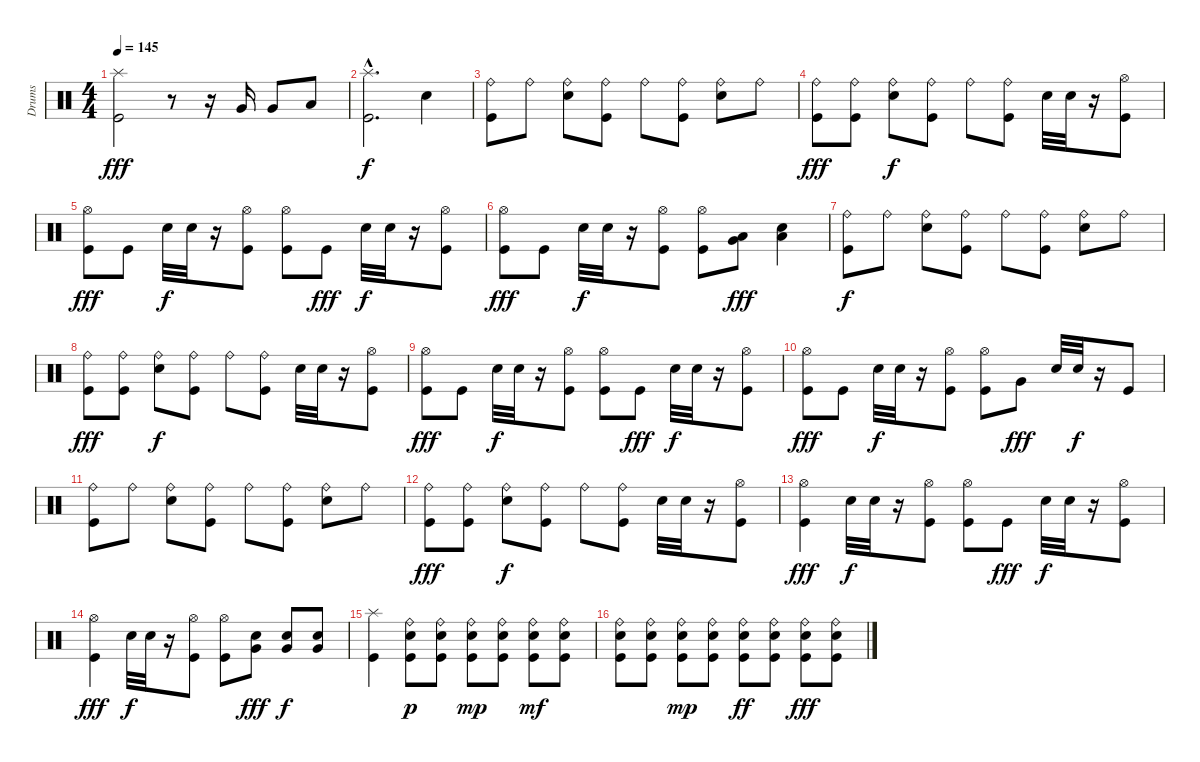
\track ("Drums" "Drums") {instrument percussion}
\staff {score}
\articulation defaults
\ts (4 4)
\tempo 145
\clef neutral
\ks c
("Splash (hit)" "Kick (hit)").2{dy fff} r.8 r.16 "Very Low Tom (hit)".16 "Very Low Tom (hit)".8 "Low Tom (hit)".8 |
("Splash (hit)"{hac} "Kick (hit)"{hac}).2{d dy f} "Snare (hit) 2".4 |
("Ride (bell)" "Kick (hit)").8 "Ride (bell)".8 ("Ride (bell)" "Snare (hit) 2").8 ("Ride (bell)" "Kick (hit)").8 "Ride (bell)".8 ("Ride (bell)" "Kick (hit)").8 ("Ride (bell)" "Snare (hit) 2").8 "Ride (bell)".8 |
("Ride (bell)" "Kick (hit)").8{dy fff} ("Ride (bell)" "Kick (hit)").8 ("Ride (bell)" "Snare (hit) 2").8{dy f} ("Ride (bell)" "Kick (hit)").8 "Ride (bell)".8 ("Ride (bell)" "Kick (hit)").8 "Snare (hit) 2".32 "Snare (hit) 2".32 r.16 ("Hi-Hat (open)" "Kick (hit)").8 |
("Hi-Hat (open)" "Kick (hit)").8{dy fff} "Kick (hit)".8 "Snare (hit) 2".32{dy f} "Snare (hit) 2".32 r.16 ("Hi-Hat (open)" "Kick (hit)").8 ("Hi-Hat (open)" "Kick (hit)").8 "Kick (hit)".8{dy fff} "Snare (hit) 2".32{dy f} "Snare (hit) 2".32 r.16 ("Hi-Hat (open)" "Kick (hit)").8 |
("Hi-Hat (open)" "Kick (hit)").8{dy fff} "Kick (hit)".8 "Snare (hit) 2".32{dy f} "Snare (hit) 2".32 r.16 ("Hi-Hat (open)" "Kick (hit)").8 ("Hi-Hat (open)" "Kick (hit)").8 ("Very Low Tom (hit)" "Low Tom (hit)").8{dy fff} ("Low Tom (hit)" "Snare (hit) 2").4 |
("Ride (bell)" "Kick (hit)").8{dy f} "Ride (bell)".8 ("Ride (bell)" "Snare (hit) 2").8 ("Ride (bell)" "Kick (hit)").8 "Ride (bell)".8 ("Ride (bell)" "Kick (hit)").8 ("Ride (bell)" "Snare (hit) 2").8 "Ride (bell)".8 |
("Ride (bell)" "Kick (hit)").8{dy fff} ("Ride (bell)" "Kick (hit)").8 ("Ride (bell)" "Snare (hit) 2").8{dy f} ("Ride (bell)" "Kick (hit)").8 "Ride (bell)".8 ("Ride (bell)" "Kick (hit)").8 "Snare (hit) 2".32 "Snare (hit) 2".32 r.16 ("Hi-Hat (open)" "Kick (hit)").8 |
("Hi-Hat (open)" "Kick (hit)").8{dy fff} "Kick (hit)".8 "Snare (hit) 2".32{dy f} "Snare (hit) 2".32 r.16 ("Hi-Hat (open)" "Kick (hit)").8 ("Hi-Hat (open)" "Kick (hit)").8 "Kick (hit)".8{dy fff} "Snare (hit) 2".32{dy f} "Snare (hit) 2".32 r.16 ("Hi-Hat (open)" "Kick (hit)").8 |
("Hi-Hat (open)" "Kick (hit)").8{dy fff} "Kick (hit)".8 "Snare (hit) 2".32{dy f} "Snare (hit) 2".32 r.16 ("Hi-Hat (open)" "Kick (hit)").8 ("Hi-Hat (open)" "Kick (hit)").8 "Very Low Tom (hit)".8{dy fff} "Snare (hit) 2".32 "Snare (hit) 2".32{dy f} r.16 "Kick (hit)".8 |
("Ride (bell)" "Kick (hit)").8 "Ride (bell)".8 ("Ride (bell)" "Snare (hit) 2").8 ("Ride (bell)" "Kick (hit)").8 "Ride (bell)".8 ("Ride (bell)" "Kick (hit)").8 ("Ride (bell)" "Snare (hit) 2").8 "Ride (bell)".8 |
("Ride (bell)" "Kick (hit)").8{dy fff} ("Ride (bell)" "Kick (hit)").8 ("Ride (bell)" "Snare (hit) 2").8{dy f} ("Ride (bell)" "Kick (hit)").8 "Ride (bell)".8 ("Ride (bell)" "Kick (hit)").8 "Snare (hit) 2".32 "Snare (hit) 2".32 r.16 ("Hi-Hat (open)" "Kick (hit)").8 |
("Hi-Hat (open)" "Kick (hit)").4{dy fff} "Snare (hit) 2".32{dy f} "Snare (hit) 2".32 r.16 ("Hi-Hat (open)" "Kick (hit)").8 ("Hi-Hat (open)" "Kick (hit)").8 "Kick (hit)".8{dy fff} "Snare (hit) 2".32{dy f} "Snare (hit) 2".32 r.16 ("Hi-Hat (open)" "Kick (hit)").8 |
("Hi-Hat (open)" "Kick (hit)").4{dy fff} "Snare (hit) 2".32{dy f} "Snare (hit) 2".32 r.16 ("Hi-Hat (open)" "Kick (hit)").8 ("Hi-Hat (open)" "Kick (hit)").8 ("Very Low Tom (hit)" "Snare (hit) 2").8{dy fff} ("Very Low Tom (hit)" "Snare (hit) 2").8{dy f} ("Very Low Tom (hit)" "Snare (hit) 2").8 |
("Splash (hit)" "Kick (hit)").4 ("Ride (bell)" "Snare (hit) 2" "Kick (hit)").8{dy p} ("Ride (bell)" "Snare (hit) 2" "Kick (hit)").8 ("Ride (bell)" "Snare (hit) 2" "Kick (hit)").8{dy mp} ("Ride (bell)" "Snare (hit) 2" "Kick (hit)").8 ("Ride (bell)" "Snare (hit) 2" "Kick (hit)").8{dy mf} ("Ride (bell)" "Snare (hit) 2" "Kick (hit)").8 |
("Ride (bell)" "Snare (hit) 2" "Kick (hit)").8 ("Ride (bell)" "Snare (hit) 2" "Kick (hit)").8 ("Ride (bell)" "Snare (hit) 2" "Kick (hit)").8{dy mp} ("Ride (bell)" "Snare (hit) 2" "Kick (hit)").8 ("Ride (bell)" "Snare (hit) 2" "Kick (hit)").8{dy ff} ("Ride (bell)" "Snare (hit) 2" "Kick (hit)").8 ("Ride (bell)" "Snare (hit) 2" "Kick (hit)").8{dy fff} ("Ride (bell)" "Snare (hit) 2" "Kick (hit)").8
